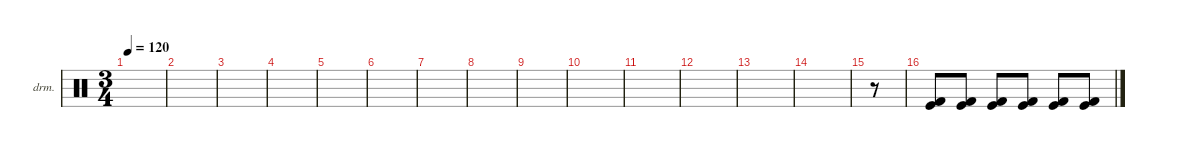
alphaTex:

\defaultSystemsLayout 4
\hideDynamics
\bracketExtendMode nobrackets
\firstSystemTrackNameOrientation horizontal
\otherSystemsTrackNameOrientation horizontal
\track ("Drumkit" "drm.") {instrument percussion}
\staff {score}
\articulation defaults
\ts (3 4)
\beaming (8 2 2 2)
\tempo 120
\clef neutral
\ks c
|
|
|
|
|
|
|
|
|
|
|
|
|
|
r.8{beam Down} |
("Kick (hit) 2" "Kick (hit)").8{beam Up} ("Kick (hit)" "Kick (hit) 2").8{beam Up} ("Kick (hit) 2" "Kick (hit)").8{beam Up} ("Kick (hit)" "Kick (hit) 2").8{beam Up} ("Kick (hit) 2" "Kick (hit)").8{beam Up} ("Kick (hit)" "Kick (hit) 2").8{beam Up}
